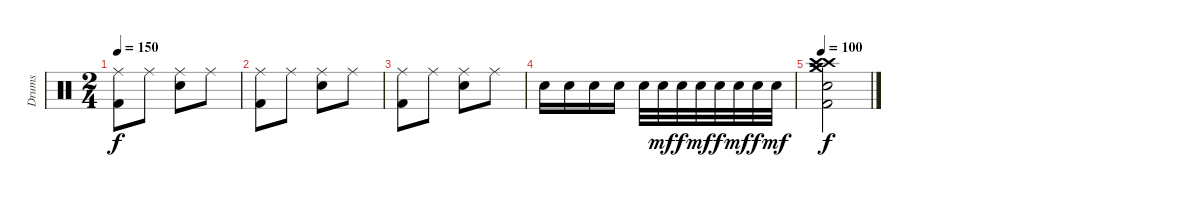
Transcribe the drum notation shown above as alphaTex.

\track ("Drums" "Drums") {instrument percussion}
\staff {score}
\articulation defaults
\ts (2 4)
\tempo 150
\clef neutral
\ks c
("Ride (middle)" "Kick (hit) 2").8{dy f} "Ride (middle)".8 ("Ride (middle)" "Electric Snare (hit)").8 "Ride (middle)".8 |
("Ride (middle)" "Kick (hit) 2").8 "Ride (middle)".8 ("Ride (middle)" "Electric Snare (hit)").8 "Ride (middle)".8 |
("Ride (middle)" "Kick (hit) 2").8 "Ride (middle)".8 ("Ride (middle)" "Electric Snare (hit)").8 "Ride (middle)".8 |
"Electric Snare (hit)".16 "Electric Snare (hit)".16 "Electric Snare (hit)".16 "Electric Snare (hit)".16 "Electric Snare (hit)".32 "Electric Snare (hit)".32{dy mf} "Electric Snare (hit)".32{dy f} "Electric Snare (hit)".32{dy mf} "Electric Snare (hit)".32{dy f} "Electric Snare (hit)".32{dy mf} "Electric Snare (hit)".32{dy f} "Electric Snare (hit)".32{dy mf} |
\tempo 100
("Crash medium (hit)" "Crash high (hit)" "Electric Snare (hit)" "Kick (hit) 2" "Crash high (hit)" "Crash medium (hit)").2{dy f}
